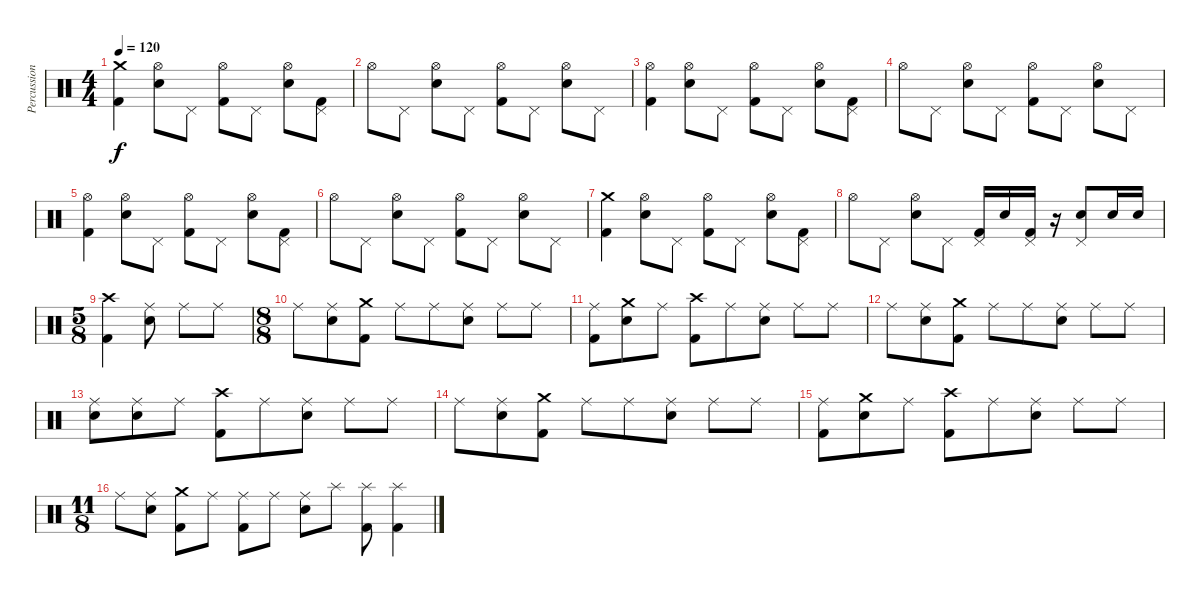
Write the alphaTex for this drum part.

\track ("Percussion" "Percussion") {instrument percussion}
\staff {score}
\articulation defaults
\ts (4 4)
\tempo 120
\clef neutral
\ks c
("Crash medium (hit)" "Kick (hit) 2").4{dy f} ("Hi-Hat (open)" "Electric Snare (hit)").8 "Pedal Hi-Hat (hit)".8 ("Hi-Hat (open)" "Kick (hit) 2").8 "Pedal Hi-Hat (hit)".8 ("Hi-Hat (open)" "Electric Snare (hit)").8 ("Pedal Hi-Hat (hit)" "Kick (hit) 2").8 |
"Hi-Hat (open)".8 "Pedal Hi-Hat (hit)".8 ("Hi-Hat (open)" "Electric Snare (hit)").8 "Pedal Hi-Hat (hit)".8 ("Hi-Hat (open)" "Kick (hit) 2").8 "Pedal Hi-Hat (hit)".8 ("Hi-Hat (open)" "Electric Snare (hit)").8 "Pedal Hi-Hat (hit)".8 |
("Hi-Hat (open)" "Kick (hit) 2").4 ("Hi-Hat (open)" "Electric Snare (hit)").8 "Pedal Hi-Hat (hit)".8 ("Hi-Hat (open)" "Kick (hit) 2").8 "Pedal Hi-Hat (hit)".8 ("Hi-Hat (open)" "Electric Snare (hit)").8 ("Pedal Hi-Hat (hit)" "Kick (hit) 2").8 |
"Hi-Hat (open)".8 "Pedal Hi-Hat (hit)".8 ("Hi-Hat (open)" "Electric Snare (hit)").8 "Pedal Hi-Hat (hit)".8 ("Hi-Hat (open)" "Kick (hit) 2").8 "Pedal Hi-Hat (hit)".8 ("Hi-Hat (open)" "Electric Snare (hit)").8 "Pedal Hi-Hat (hit)".8 |
("Hi-Hat (open)" "Kick (hit) 2").4 ("Hi-Hat (open)" "Electric Snare (hit)").8 "Pedal Hi-Hat (hit)".8 ("Hi-Hat (open)" "Kick (hit) 2").8 "Pedal Hi-Hat (hit)".8 ("Hi-Hat (open)" "Electric Snare (hit)").8 ("Pedal Hi-Hat (hit)" "Kick (hit) 2").8 |
"Hi-Hat (open)".8 "Pedal Hi-Hat (hit)".8 ("Hi-Hat (open)" "Electric Snare (hit)").8 "Pedal Hi-Hat (hit)".8 ("Hi-Hat (open)" "Kick (hit) 2").8 "Pedal Hi-Hat (hit)".8 ("Hi-Hat (open)" "Electric Snare (hit)").8 "Pedal Hi-Hat (hit)".8 |
("Crash medium (hit)" "Kick (hit) 2").4 ("Hi-Hat (open)" "Electric Snare (hit)").8 "Pedal Hi-Hat (hit)".8 ("Hi-Hat (open)" "Kick (hit) 2").8 "Pedal Hi-Hat (hit)".8 ("Hi-Hat (open)" "Electric Snare (hit)").8 ("Pedal Hi-Hat (hit)" "Kick (hit) 2").8 |
"Hi-Hat (open)".8 "Pedal Hi-Hat (hit)".8 ("Hi-Hat (open)" "Electric Snare (hit)").8 "Pedal Hi-Hat (hit)".8 ("Pedal Hi-Hat (hit)" "Kick (hit) 2").16 "Electric Snare (hit)".16 ("Pedal Hi-Hat (hit)" "Kick (hit) 2").16 r.16 ("Pedal Hi-Hat (hit)" "Electric Snare (hit)").8 "Electric Snare (hit)".16 "Electric Snare (hit)".16 |
\ts (5 8)
("Crash high (hit)" "Kick (hit) 2").4 ("Ride (middle)" "Electric Snare (hit)").8 "Ride (middle)".8 "Ride (middle)".8 |
\ts (8 8)
"Ride (middle)".8 ("Ride (middle)" "Electric Snare (hit)").8 ("Crash medium (hit)" "Kick (hit) 2").8 "Ride (middle)".8 "Ride (middle)".8 ("Ride (middle)" "Electric Snare (hit)").8 "Ride (middle)".8 "Ride (middle)".8 |
("Ride (middle)" "Kick (hit) 2").8 ("Crash medium (hit)" "Electric Snare (hit)").8 "Ride (middle)".8 ("Crash high (hit)" "Kick (hit) 2").8 "Ride (middle)".8 ("Ride (middle)" "Electric Snare (hit)").8 "Ride (middle)".8 "Ride (middle)".8 |
"Ride (middle)".8 ("Ride (middle)" "Electric Snare (hit)").8 ("Crash medium (hit)" "Kick (hit) 2").8 "Ride (middle)".8 "Ride (middle)".8 ("Ride (middle)" "Electric Snare (hit)").8 "Ride (middle)".8 "Ride (middle)".8 |
("Ride (middle)" "Electric Snare (hit)").8 ("Ride (middle)" "Electric Snare (hit)").8 "Ride (middle)".8 ("Crash high (hit)" "Kick (hit) 2").8 "Ride (middle)".8 ("Ride (middle)" "Electric Snare (hit)").8 "Ride (middle)".8 "Ride (middle)".8 |
"Ride (middle)".8 ("Ride (middle)" "Electric Snare (hit)").8 ("Crash medium (hit)" "Kick (hit) 2").8 "Ride (middle)".8 "Ride (middle)".8 ("Ride (middle)" "Electric Snare (hit)").8 "Ride (middle)".8 "Ride (middle)".8 |
("Ride (middle)" "Kick (hit) 2").8 ("Crash medium (hit)" "Electric Snare (hit)").8 "Ride (middle)".8 ("Crash high (hit)" "Kick (hit) 2").8 "Ride (middle)".8 ("Ride (middle)" "Electric Snare (hit)").8 "Ride (middle)".8 "Ride (middle)".8 |
\ts (11 8)
"Ride (middle)".8 ("Ride (middle)" "Electric Snare (hit)").8 ("Crash medium (hit)" "Kick (hit) 2").8 "Ride (middle)".8 ("Ride (middle)" "Kick (hit) 2").8 "Ride (middle)".8 ("Ride (middle)" "Electric Snare (hit)").8 "Splash (hit)".8 ("Splash (hit)" "Kick (hit) 2").8 ("Splash (hit)" "Kick (hit) 2").4
